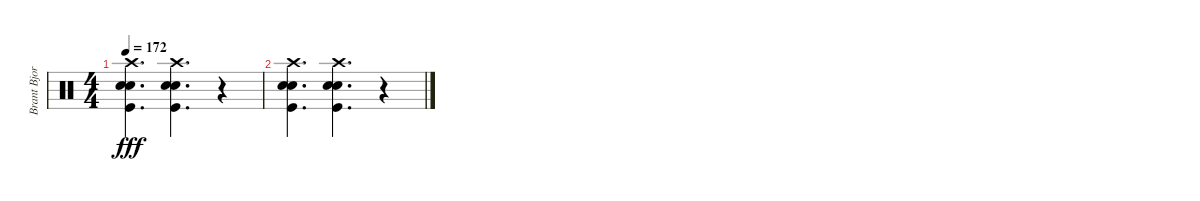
\track ("Brant Bjork" "Brant Bjor") {instrument percussion}
\staff {score}
\articulation defaults
\ts (4 4)
\tempo 172
\clef neutral
\ks c
("Crash high (hit)" "Snare (hit) 2" "Snare (hit) 2" "Kick (hit)").4{d dy fff} ("Crash high (hit)" "Snare (hit) 2" "Snare (hit) 2" "Kick (hit)").4{d} r.4 |
("Crash high (hit)" "Snare (hit) 2" "Snare (hit) 2" "Kick (hit)").4{d} ("Crash high (hit)" "Snare (hit) 2" "Snare (hit) 2" "Kick (hit)").4{d} r.4
